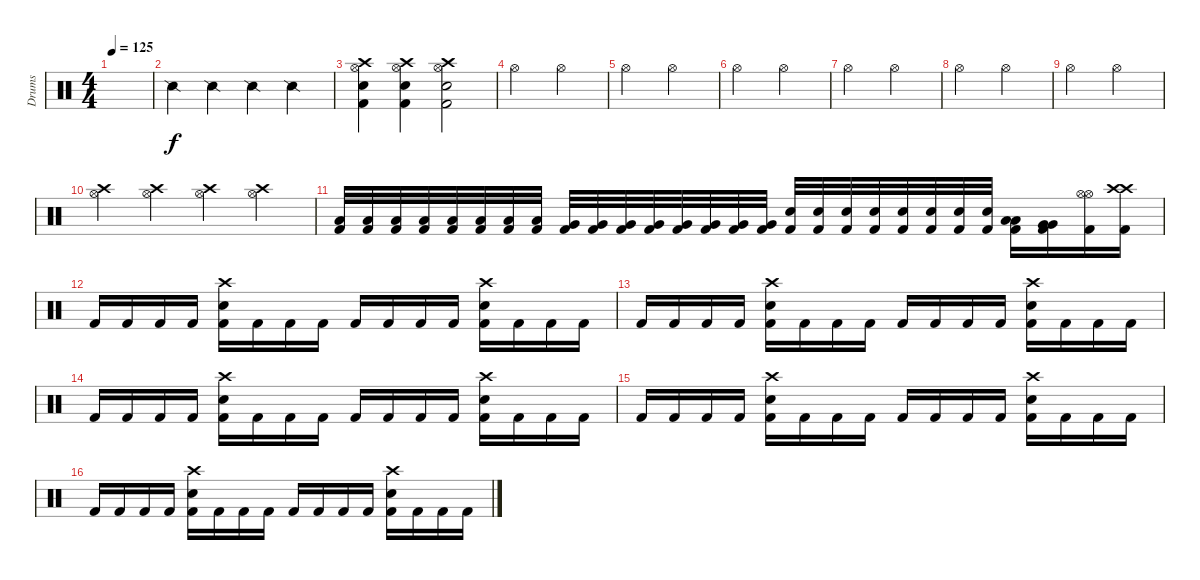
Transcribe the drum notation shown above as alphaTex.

\track ("Drums" "Drums") {instrument percussion}
\staff {score}
\articulation defaults
\ts (4 4)
\tempo 125
\clef neutral
\ks c
|
"Snare (side stick) 2".4 "Snare (side stick) 2".4 "Snare (side stick) 2".4 "Snare (side stick) 2".4 |
("Crash high (hit)" "Hi-Hat (open)" "Snare (hit) 2" "Kick (hit) 2").4 ("Crash high (hit)" "Hi-Hat (open)" "Snare (hit) 2" "Kick (hit) 2").4 ("Crash high (hit)" "Hi-Hat (open)" "Snare (hit) 2" "Kick (hit) 2").2 |
"Hi-Hat (open)".2 "Hi-Hat (open)".2 |
"Hi-Hat (open)".2 "Hi-Hat (open)".2 |
"Hi-Hat (open)".2 "Hi-Hat (open)".2 |
"Hi-Hat (open)".2 "Hi-Hat (open)".2 |
"Hi-Hat (open)".2 "Hi-Hat (open)".2 |
"Hi-Hat (open)".2 "Hi-Hat (open)".2 |
("Crash high (hit)" "Hi-Hat (open)").4 ("Crash high (hit)" "Hi-Hat (open)").4 ("Crash high (hit)" "Hi-Hat (open)").4 ("Crash high (hit)" "Hi-Hat (open)").4 |
("Low Tom (hit)" "Kick (hit) 2").32 ("Low Tom (hit)" "Kick (hit) 2").32 ("Low Tom (hit)" "Kick (hit) 2").32 ("Low Tom (hit)" "Kick (hit) 2").32 ("Low Tom (hit)" "Kick (hit) 2").32 ("Low Tom (hit)" "Kick (hit) 2").32 ("Low Tom (hit)" "Kick (hit) 2").32 ("Low Tom (hit)" "Kick (hit) 2").32 ("Very Low Tom (hit)" "Kick (hit) 2").32 ("Very Low Tom (hit)" "Kick (hit) 2").32 ("Very Low Tom (hit)" "Kick (hit) 2").32 ("Very Low Tom (hit)" "Kick (hit) 2").32 ("Very Low Tom (hit)" "Kick (hit) 2").32 ("Very Low Tom (hit)" "Kick (hit) 2").32 ("Very Low Tom (hit)" "Kick (hit) 2").32 ("Very Low Tom (hit)" "Kick (hit) 2").32 ("Snare (hit) 2" "Kick (hit) 2").32 ("Snare (hit) 2" "Kick (hit) 2").32 ("Snare (hit) 2" "Kick (hit) 2").32 ("Snare (hit) 2" "Kick (hit) 2").32 ("Snare (hit) 2" "Kick (hit) 2").32 ("Snare (hit) 2" "Kick (hit) 2").32 ("Snare (hit) 2" "Kick (hit) 2").32 ("Snare (hit) 2" "Kick (hit) 2").32 ("Low Tom (hit)" "Low Tom (hit)" "Kick (hit) 2").16 ("Very Low Tom (hit)" "Very Low Tom (hit)" "Kick (hit) 2").16 ("Hi-Hat (open)" "Hi-Hat (open)" "Kick (hit) 2").16 ("Crash high (hit)" "Crash high (hit)" "Kick (hit) 2").16 |
"Kick (hit) 2".16 "Kick (hit) 2".16 "Kick (hit) 2".16 "Kick (hit) 2".16 ("Crash high (hit)" "Kick (hit) 2" "Snare (hit) 2").16 "Kick (hit) 2".16 "Kick (hit) 2".16 "Kick (hit) 2".16 "Kick (hit) 2".16 "Kick (hit) 2".16 "Kick (hit) 2".16 "Kick (hit) 2".16 ("Crash high (hit)" "Kick (hit) 2" "Snare (hit) 2").16 "Kick (hit) 2".16 "Kick (hit) 2".16 "Kick (hit) 2".16 |
"Kick (hit) 2".16 "Kick (hit) 2".16 "Kick (hit) 2".16 "Kick (hit) 2".16 ("Crash high (hit)" "Kick (hit) 2" "Snare (hit) 2").16 "Kick (hit) 2".16 "Kick (hit) 2".16 "Kick (hit) 2".16 "Kick (hit) 2".16 "Kick (hit) 2".16 "Kick (hit) 2".16 "Kick (hit) 2".16 ("Crash high (hit)" "Kick (hit) 2" "Snare (hit) 2").16 "Kick (hit) 2".16 "Kick (hit) 2".16 "Kick (hit) 2".16 |
"Kick (hit) 2".16 "Kick (hit) 2".16 "Kick (hit) 2".16 "Kick (hit) 2".16 ("Crash high (hit)" "Kick (hit) 2" "Snare (hit) 2").16 "Kick (hit) 2".16 "Kick (hit) 2".16 "Kick (hit) 2".16 "Kick (hit) 2".16 "Kick (hit) 2".16 "Kick (hit) 2".16 "Kick (hit) 2".16 ("Crash high (hit)" "Kick (hit) 2" "Snare (hit) 2").16 "Kick (hit) 2".16 "Kick (hit) 2".16 "Kick (hit) 2".16 |
"Kick (hit) 2".16 "Kick (hit) 2".16 "Kick (hit) 2".16 "Kick (hit) 2".16 ("Crash high (hit)" "Kick (hit) 2" "Snare (hit) 2").16 "Kick (hit) 2".16 "Kick (hit) 2".16 "Kick (hit) 2".16 "Kick (hit) 2".16 "Kick (hit) 2".16 "Kick (hit) 2".16 "Kick (hit) 2".16 ("Crash high (hit)" "Kick (hit) 2" "Snare (hit) 2").16 "Kick (hit) 2".16 "Kick (hit) 2".16 "Kick (hit) 2".16 |
"Kick (hit) 2".16 "Kick (hit) 2".16 "Kick (hit) 2".16 "Kick (hit) 2".16 ("Crash high (hit)" "Kick (hit) 2" "Snare (hit) 2").16 "Kick (hit) 2".16 "Kick (hit) 2".16 "Kick (hit) 2".16 "Kick (hit) 2".16 "Kick (hit) 2".16 "Kick (hit) 2".16 "Kick (hit) 2".16 ("Crash high (hit)" "Kick (hit) 2" "Snare (hit) 2").16 "Kick (hit) 2".16 "Kick (hit) 2".16 "Kick (hit) 2".16
